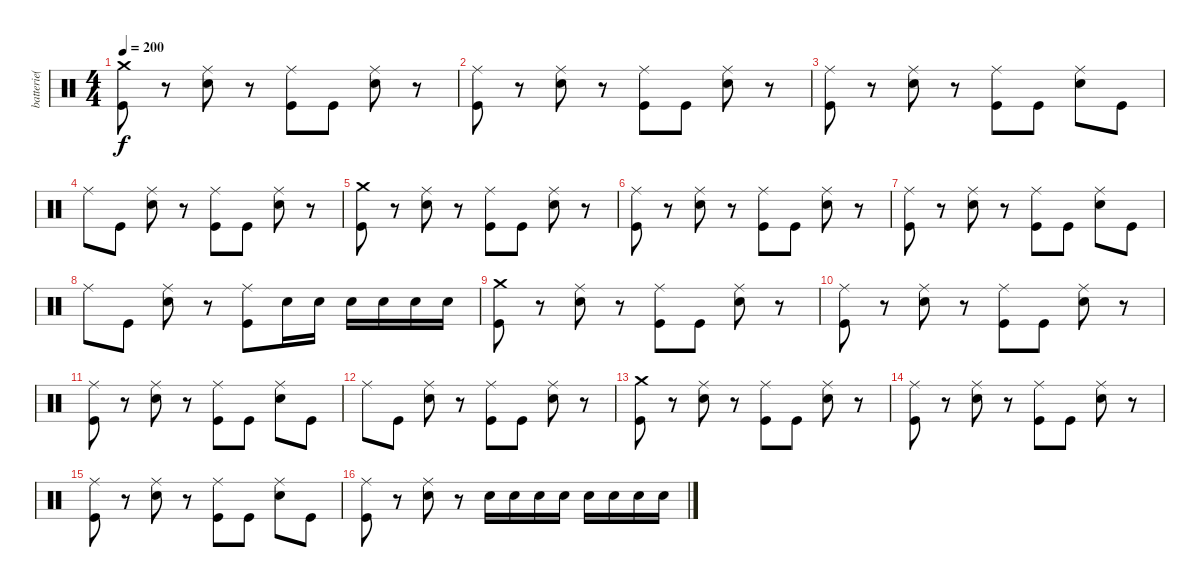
\track ("batterie( Meggers )" "batterie( ") {instrument percussion}
\staff {score}
\articulation defaults
\ts (4 4)
\tempo 200
\clef neutral
\ks c
("Crash medium (hit)" "Kick (hit)").8{dy f} r.8 ("Ride (middle)" "Snare (hit) 2").8 r.8 ("Ride (middle)" "Kick (hit)").8 "Kick (hit)".8 ("Ride (middle)" "Snare (hit) 2").8 r.8 |
("Ride (middle)" "Kick (hit)").8 r.8 ("Ride (middle)" "Snare (hit) 2").8 r.8 ("Ride (middle)" "Kick (hit)").8 "Kick (hit)".8 ("Ride (middle)" "Snare (hit) 2").8 r.8 |
("Ride (middle)" "Kick (hit)").8 r.8 ("Ride (middle)" "Snare (hit) 2").8 r.8 ("Ride (middle)" "Kick (hit)").8 "Kick (hit)".8 ("Ride (middle)" "Snare (hit) 2").8 "Kick (hit)".8 |
"Ride (middle)".8 "Kick (hit)".8 ("Ride (middle)" "Snare (hit) 2").8 r.8 ("Ride (middle)" "Kick (hit)").8 "Kick (hit)".8 ("Ride (middle)" "Snare (hit) 2").8 r.8 |
("Crash medium (hit)" "Kick (hit)").8 r.8 ("Ride (middle)" "Snare (hit) 2").8 r.8 ("Ride (middle)" "Kick (hit)").8 "Kick (hit)".8 ("Ride (middle)" "Snare (hit) 2").8 r.8 |
("Ride (middle)" "Kick (hit)").8 r.8 ("Ride (middle)" "Snare (hit) 2").8 r.8 ("Ride (middle)" "Kick (hit)").8 "Kick (hit)".8 ("Ride (middle)" "Snare (hit) 2").8 r.8 |
("Ride (middle)" "Kick (hit)").8 r.8 ("Ride (middle)" "Snare (hit) 2").8 r.8 ("Ride (middle)" "Kick (hit)").8 "Kick (hit)".8 ("Ride (middle)" "Snare (hit) 2").8 "Kick (hit)".8 |
"Ride (middle)".8 "Kick (hit)".8 ("Ride (middle)" "Snare (hit) 2").8 r.8 ("Ride (middle)" "Kick (hit)").8 "Snare (hit) 2".16 "Snare (hit) 2".16 "Snare (hit) 2".16 "Snare (hit) 2".16 "Snare (hit) 2".16 "Snare (hit) 2".16 |
("Crash medium (hit)" "Kick (hit)").8 r.8 ("Ride (middle)" "Snare (hit) 2").8 r.8 ("Ride (middle)" "Kick (hit)").8 "Kick (hit)".8 ("Ride (middle)" "Snare (hit) 2").8 r.8 |
("Ride (middle)" "Kick (hit)").8 r.8 ("Ride (middle)" "Snare (hit) 2").8 r.8 ("Ride (middle)" "Kick (hit)").8 "Kick (hit)".8 ("Ride (middle)" "Snare (hit) 2").8 r.8 |
("Ride (middle)" "Kick (hit)").8 r.8 ("Ride (middle)" "Snare (hit) 2").8 r.8 ("Ride (middle)" "Kick (hit)").8 "Kick (hit)".8 ("Ride (middle)" "Snare (hit) 2").8 "Kick (hit)".8 |
"Ride (middle)".8 "Kick (hit)".8 ("Ride (middle)" "Snare (hit) 2").8 r.8 ("Ride (middle)" "Kick (hit)").8 "Kick (hit)".8 ("Ride (middle)" "Snare (hit) 2").8 r.8 |
("Crash medium (hit)" "Kick (hit)").8 r.8 ("Ride (middle)" "Snare (hit) 2").8 r.8 ("Ride (middle)" "Kick (hit)").8 "Kick (hit)".8 ("Ride (middle)" "Snare (hit) 2").8 r.8 |
("Ride (middle)" "Kick (hit)").8 r.8 ("Ride (middle)" "Snare (hit) 2").8 r.8 ("Ride (middle)" "Kick (hit)").8 "Kick (hit)".8 ("Ride (middle)" "Snare (hit) 2").8 r.8 |
("Ride (middle)" "Kick (hit)").8 r.8 ("Ride (middle)" "Snare (hit) 2").8 r.8 ("Ride (middle)" "Kick (hit)").8 "Kick (hit)".8 ("Ride (middle)" "Snare (hit) 2").8 "Kick (hit)".8 |
("Ride (middle)" "Kick (hit)").8 r.8 ("Ride (middle)" "Snare (hit) 2").8 r.8 "Snare (hit) 2".16 "Snare (hit) 2".16 "Snare (hit) 2".16 "Snare (hit) 2".16 "Snare (hit) 2".16 "Snare (hit) 2".16 "Snare (hit) 2".16 "Snare (hit) 2".16
